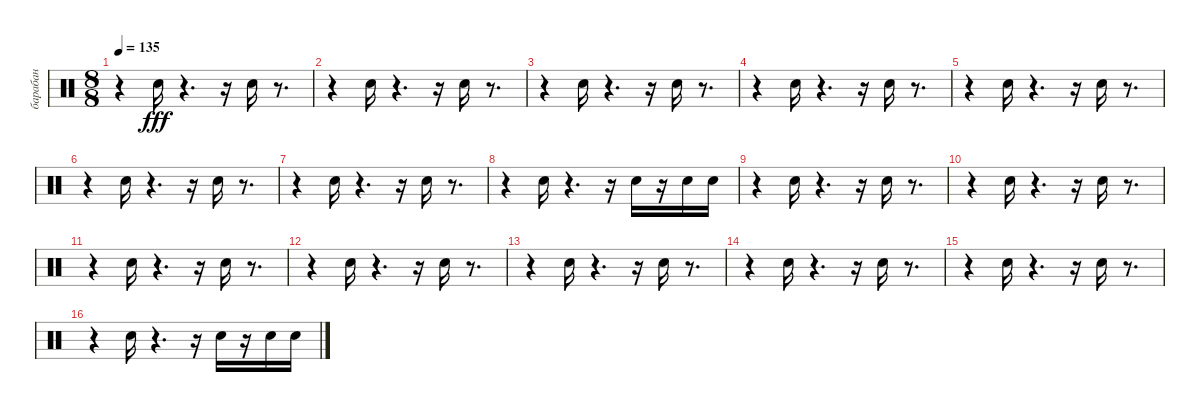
\track ("барабан" "барабан") {instrument percussion}
\staff {score}
\articulation defaults
\ts (8 8)
\tempo 135
\clef neutral
\ks c
r.4{dy fff} "Snare (hit) 2".16 r.4{d} r.16 "Snare (hit) 2".16 r.8{d} |
r.4 "Snare (hit) 2".16 r.4{d} r.16 "Snare (hit) 2".16 r.8{d} |
r.4 "Snare (hit) 2".16 r.4{d} r.16 "Snare (hit) 2".16 r.8{d} |
r.4 "Snare (hit) 2".16 r.4{d} r.16 "Snare (hit) 2".16 r.8{d} |
r.4 "Snare (hit) 2".16 r.4{d} r.16 "Snare (hit) 2".16 r.8{d} |
r.4 "Snare (hit) 2".16 r.4{d} r.16 "Snare (hit) 2".16 r.8{d} |
r.4 "Snare (hit) 2".16 r.4{d} r.16 "Snare (hit) 2".16 r.8{d} |
r.4 "Snare (hit) 2".16 r.4{d} r.16 "Snare (hit) 2".16 r.16 "Snare (hit) 2".16 "Snare (hit) 2".16 |
r.4 "Snare (hit) 2".16 r.4{d} r.16 "Snare (hit) 2".16 r.8{d} |
r.4 "Snare (hit) 2".16 r.4{d} r.16 "Snare (hit) 2".16 r.8{d} |
r.4 "Snare (hit) 2".16 r.4{d} r.16 "Snare (hit) 2".16 r.8{d} |
r.4 "Snare (hit) 2".16 r.4{d} r.16 "Snare (hit) 2".16 r.8{d} |
r.4 "Snare (hit) 2".16 r.4{d} r.16 "Snare (hit) 2".16 r.8{d} |
r.4 "Snare (hit) 2".16 r.4{d} r.16 "Snare (hit) 2".16 r.8{d} |
r.4 "Snare (hit) 2".16 r.4{d} r.16 "Snare (hit) 2".16 r.8{d} |
r.4 "Snare (hit) 2".16 r.4{d} r.16 "Snare (hit) 2".16 r.16 "Snare (hit) 2".16 "Snare (hit) 2".16
